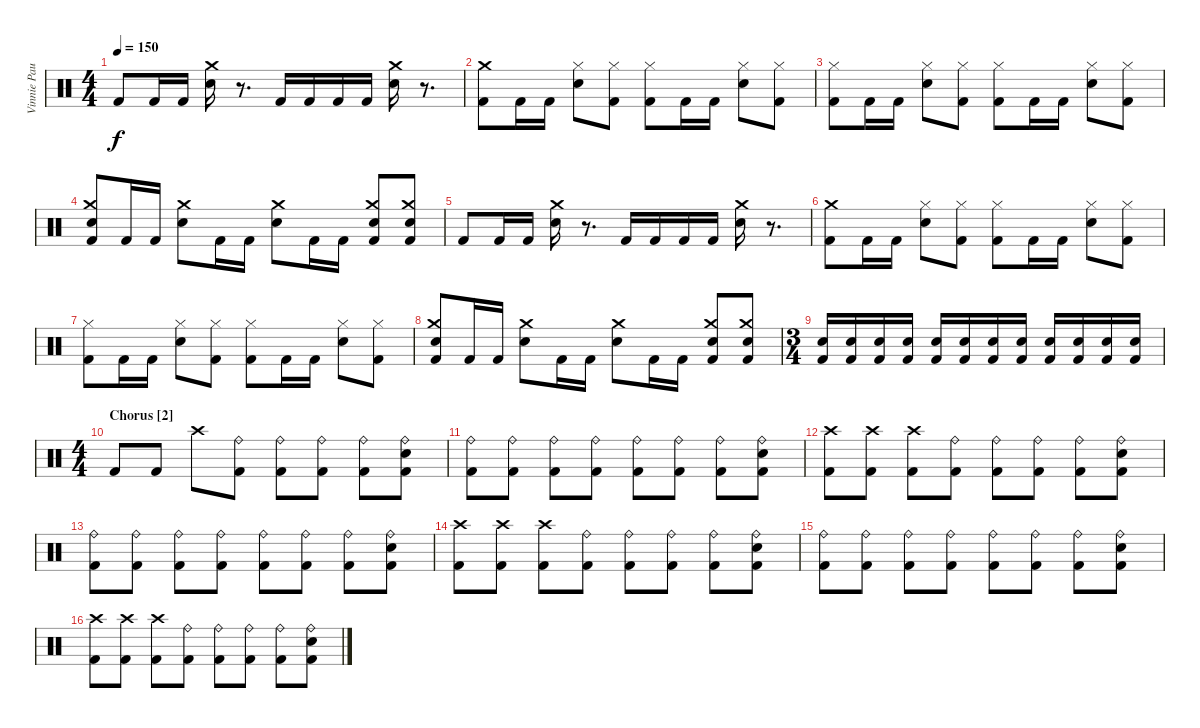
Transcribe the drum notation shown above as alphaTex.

\track ("Vinnie Paul" "Vinnie Pau") {instrument percussion}
\staff {score}
\articulation defaults
\ts (4 4)
\tempo 150
\clef neutral
\ks c "Kick (hit) 2".8{dy f} "Kick (hit) 2".16 "Kick (hit) 2".16
("Crash medium (hit)" "Snare (hit) 2").16 r.8{d} "Kick (hit) 2".16 "Kick (hit) 2".16 "Kick (hit) 2".16 "Kick (hit) 2".16 ("Crash medium (hit)" "Snare (hit) 2").16 r.8{d} |
("Crash medium (hit)" "Kick (hit) 2").8 "Kick (hit) 2".16 "Kick (hit) 2".16 ("Hi-Hat (closed)" "Snare (hit) 2").8 ("Hi-Hat (closed)" "Kick (hit) 2").8 ("Hi-Hat (closed)" "Kick (hit) 2").8 "Kick (hit) 2".16 "Kick (hit) 2".16 ("Hi-Hat (closed)" "Snare (hit) 2").8 ("Hi-Hat (closed)" "Kick (hit) 2").8 |
("Hi-Hat (closed)" "Kick (hit) 2").8 "Kick (hit) 2".16 "Kick (hit) 2".16 ("Hi-Hat (closed)" "Snare (hit) 2").8 ("Hi-Hat (closed)" "Kick (hit) 2").8 ("Hi-Hat (closed)" "Kick (hit) 2").8 "Kick (hit) 2".16 "Kick (hit) 2".16 ("Hi-Hat (closed)" "Snare (hit) 2").8 ("Hi-Hat (closed)" "Kick (hit) 2").8 |
("Crash medium (hit)" "Snare (hit) 2" "Kick (hit) 2").8 "Kick (hit) 2".16 "Kick (hit) 2".16 ("Crash medium (hit)" "Snare (hit) 2").8 "Kick (hit) 2".16 "Kick (hit) 2".16 ("Crash medium (hit)" "Snare (hit) 2").8 "Kick (hit) 2".16 "Kick (hit) 2".16 ("Crash medium (hit)" "Snare (hit) 2" "Kick (hit) 2").8 ("Crash medium (hit)" "Snare (hit) 2" "Kick (hit) 2").8 |
"Kick (hit) 2".8 "Kick (hit) 2".16 "Kick (hit) 2".16 ("Crash medium (hit)" "Snare (hit) 2").16 r.8{d} "Kick (hit) 2".16 "Kick (hit) 2".16 "Kick (hit) 2".16 "Kick (hit) 2".16 ("Crash medium (hit)" "Snare (hit) 2").16 r.8{d} |
("Crash medium (hit)" "Kick (hit) 2").8 "Kick (hit) 2".16 "Kick (hit) 2".16 ("Hi-Hat (closed)" "Snare (hit) 2").8 ("Hi-Hat (closed)" "Kick (hit) 2").8 ("Hi-Hat (closed)" "Kick (hit) 2").8 "Kick (hit) 2".16 "Kick (hit) 2".16 ("Hi-Hat (closed)" "Snare (hit) 2").8 ("Hi-Hat (closed)" "Kick (hit) 2").8 |
("Hi-Hat (closed)" "Kick (hit) 2").8 "Kick (hit) 2".16 "Kick (hit) 2".16 ("Hi-Hat (closed)" "Snare (hit) 2").8 ("Hi-Hat (closed)" "Kick (hit) 2").8 ("Hi-Hat (closed)" "Kick (hit) 2").8 "Kick (hit) 2".16 "Kick (hit) 2".16 ("Hi-Hat (closed)" "Snare (hit) 2").8 ("Hi-Hat (closed)" "Kick (hit) 2").8 |
("Crash medium (hit)" "Snare (hit) 2" "Kick (hit) 2").8 "Kick (hit) 2".16 "Kick (hit) 2".16 ("Crash medium (hit)" "Snare (hit) 2").8 "Kick (hit) 2".16 "Kick (hit) 2".16 ("Crash medium (hit)" "Snare (hit) 2").8 "Kick (hit) 2".16 "Kick (hit) 2".16 ("Crash medium (hit)" "Snare (hit) 2" "Kick (hit) 2").8 ("Crash medium (hit)" "Snare (hit) 2" "Kick (hit) 2").8 |
\ts (3 4)
("Snare (hit) 2" "Kick (hit) 2").16 ("Snare (hit) 2" "Kick (hit) 2").16 ("Snare (hit) 2" "Kick (hit) 2").16 ("Snare (hit) 2" "Kick (hit) 2").16 ("Snare (hit) 2" "Kick (hit) 2").16 ("Snare (hit) 2" "Kick (hit) 2").16 ("Snare (hit) 2" "Kick (hit) 2").16 ("Snare (hit) 2" "Kick (hit) 2").16 ("Snare (hit) 2" "Kick (hit) 2").16 ("Snare (hit) 2" "Kick (hit) 2").16 ("Snare (hit) 2" "Kick (hit) 2").16 ("Snare (hit) 2" "Kick (hit) 2").16 |
\ts (4 4)
\section ("" "Chorus [2]")
"Kick (hit) 2".8 "Kick (hit) 2".8 "Crash high (hit)".8 ("Ride (bell)" "Kick (hit) 2").8 ("Ride (bell)" "Kick (hit) 2").8 ("Ride (bell)" "Kick (hit) 2").8 ("Ride (bell)" "Kick (hit) 2").8 ("Ride (bell)" "Snare (hit) 2" "Kick (hit) 2").8 |
("Ride (bell)" "Kick (hit) 2").8 ("Ride (bell)" "Kick (hit) 2").8 ("Ride (bell)" "Kick (hit) 2").8 ("Ride (bell)" "Kick (hit) 2").8 ("Ride (bell)" "Kick (hit) 2").8 ("Ride (bell)" "Kick (hit) 2").8 ("Ride (bell)" "Kick (hit) 2").8 ("Ride (bell)" "Snare (hit) 2" "Kick (hit) 2").8 |
("Crash high (hit)" "Kick (hit) 2").8 ("Crash high (hit)" "Kick (hit) 2").8 ("Crash high (hit)" "Kick (hit) 2").8 ("Ride (bell)" "Kick (hit) 2").8 ("Ride (bell)" "Kick (hit) 2").8 ("Ride (bell)" "Kick (hit) 2").8 ("Ride (bell)" "Kick (hit) 2").8 ("Ride (bell)" "Snare (hit) 2" "Kick (hit) 2").8 |
("Ride (bell)" "Kick (hit) 2").8 ("Ride (bell)" "Kick (hit) 2").8 ("Ride (bell)" "Kick (hit) 2").8 ("Ride (bell)" "Kick (hit) 2").8 ("Ride (bell)" "Kick (hit) 2").8 ("Ride (bell)" "Kick (hit) 2").8 ("Ride (bell)" "Kick (hit) 2").8 ("Ride (bell)" "Snare (hit) 2" "Kick (hit) 2").8 |
("Crash high (hit)" "Kick (hit) 2").8 ("Crash high (hit)" "Kick (hit) 2").8 ("Crash high (hit)" "Kick (hit) 2").8 ("Ride (bell)" "Kick (hit) 2").8 ("Ride (bell)" "Kick (hit) 2").8 ("Ride (bell)" "Kick (hit) 2").8 ("Ride (bell)" "Kick (hit) 2").8 ("Ride (bell)" "Snare (hit) 2" "Kick (hit) 2").8 |
("Ride (bell)" "Kick (hit) 2").8 ("Ride (bell)" "Kick (hit) 2").8 ("Ride (bell)" "Kick (hit) 2").8 ("Ride (bell)" "Kick (hit) 2").8 ("Ride (bell)" "Kick (hit) 2").8 ("Ride (bell)" "Kick (hit) 2").8 ("Ride (bell)" "Kick (hit) 2").8 ("Ride (bell)" "Snare (hit) 2" "Kick (hit) 2").8 |
("Crash high (hit)" "Kick (hit) 2").8 ("Crash high (hit)" "Kick (hit) 2").8 ("Crash high (hit)" "Kick (hit) 2").8 ("Ride (bell)" "Kick (hit) 2").8 ("Ride (bell)" "Kick (hit) 2").8 ("Ride (bell)" "Kick (hit) 2").8 ("Ride (bell)" "Kick (hit) 2").8 ("Ride (bell)" "Snare (hit) 2" "Kick (hit) 2").8
